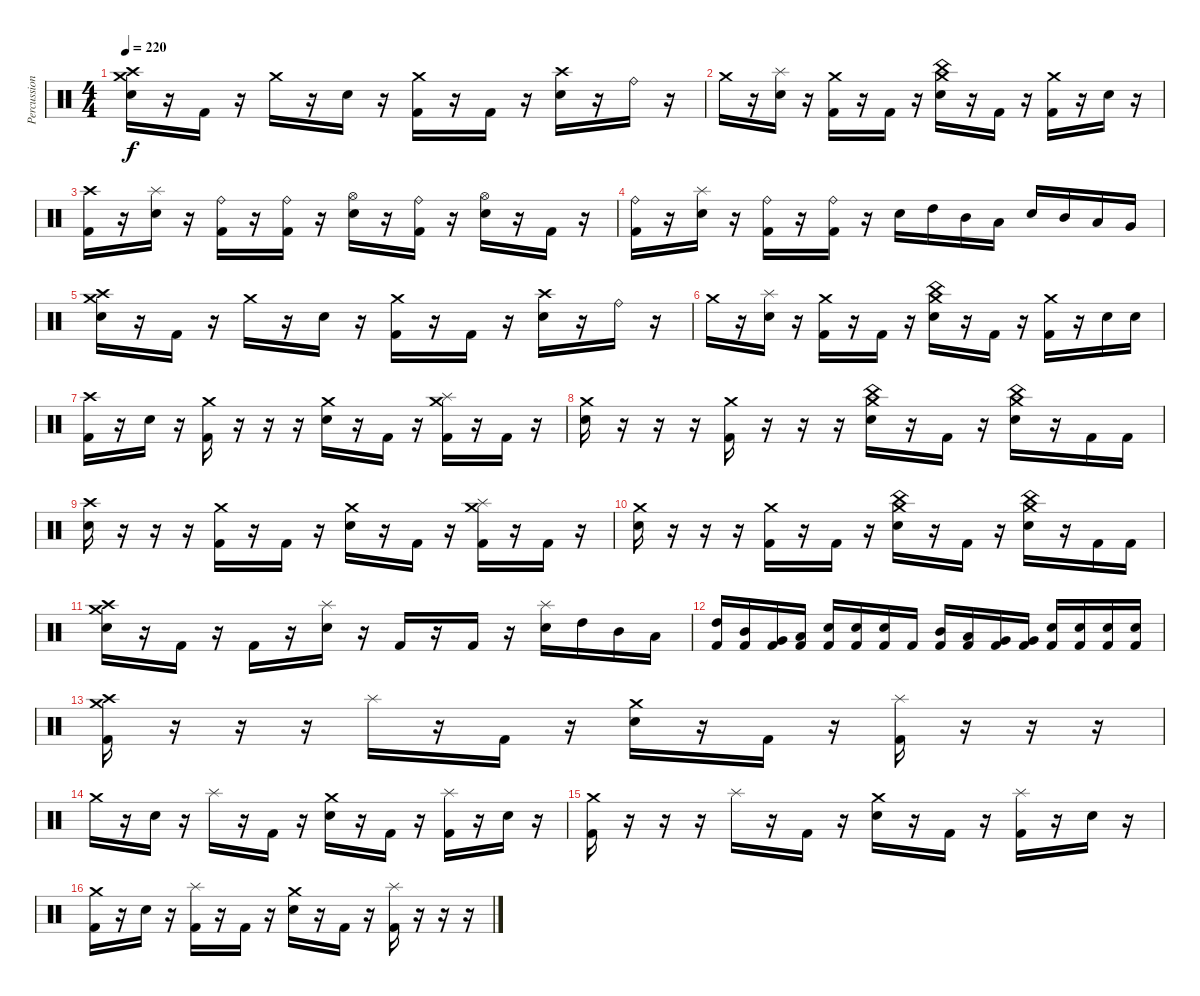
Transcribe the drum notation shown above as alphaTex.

\track ("Percussion" "Percussion") {instrument percussion}
\staff {score}
\articulation defaults
\ts (4 4)
\tempo 220
\clef neutral
\ks c
("Crash high (hit)" "Crash medium (hit)" "Electric Snare (hit)").16{dy f} r.16 "Kick (hit) 2".16 r.16 "Crash medium (hit)".16 r.16 "Electric Snare (hit)".16 r.16 ("Crash medium (hit)" "Kick (hit) 2").16 r.16 "Kick (hit) 2".16 r.16 ("Crash high (hit)" "Electric Snare (hit)").16 r.16 "Ride (bell)".16 r.16 |
"Crash medium (hit)".16 r.16 ("Splash (hit)" "Electric Snare (hit)").16 r.16 ("Crash medium (hit)" "Kick (hit) 2").16 r.16 "Kick (hit) 2".16 r.16 ("Crash medium (hit)" "China (hit)" "Electric Snare (hit)").16 r.16 "Kick (hit) 2".16 r.16 ("Crash medium (hit)" "Kick (hit) 2").16 r.16 "Electric Snare (hit)".16 r.16 |
("Crash high (hit)" "Kick (hit) 2").16 r.16 ("Splash (hit)" "Electric Snare (hit)").16 r.16 ("Ride (bell)" "Kick (hit) 2").16 r.16 ("Ride (bell)" "Kick (hit) 2").16 r.16 ("Hi-Hat (open)" "Electric Snare (hit)").16 r.16 ("Ride (bell)" "Kick (hit) 2").16 r.16 ("Hi-Hat (open)" "Electric Snare (hit)").16 r.16 "Kick (hit) 2".16 r.16 |
("Ride (bell)" "Kick (hit) 2").16 r.16 ("Splash (hit)" "Electric Snare (hit)").16 r.16 ("Ride (bell)" "Kick (hit) 2").16 r.16 ("Ride (bell)" "Kick (hit) 2").16 r.16 "Electric Snare (hit)".16 "High Tom (hit)".16 "Mid Tom (hit)".16 "Low Tom (hit)".16 "Electric Snare (hit)".16 "Mid Tom (hit)".16 "Low Tom (hit)".16 "Very Low Tom (hit)".16 |
("Crash high (hit)" "Crash medium (hit)" "Electric Snare (hit)").16 r.16 "Kick (hit) 2".16 r.16 "Crash medium (hit)".16 r.16 "Electric Snare (hit)".16 r.16 ("Crash medium (hit)" "Kick (hit) 2").16 r.16 "Kick (hit) 2".16 r.16 ("Crash high (hit)" "Electric Snare (hit)").16 r.16 "Ride (bell)".16 r.16 |
"Crash medium (hit)".16 r.16 ("Splash (hit)" "Electric Snare (hit)").16 r.16 ("Crash medium (hit)" "Kick (hit) 2").16 r.16 "Kick (hit) 2".16 r.16 ("Crash medium (hit)" "China (hit)" "Electric Snare (hit)").16 r.16 "Kick (hit) 2".16 r.16 ("Crash medium (hit)" "Kick (hit) 2").16 r.16 "Electric Snare (hit)".16 "Electric Snare (hit)".16 |
("Crash high (hit)" "Kick (hit) 2").16 r.16 "Electric Snare (hit)".16 r.16 ("Crash medium (hit)" "Kick (hit) 2").16 r.16 r.16 r.16 ("Crash medium (hit)" "Electric Snare (hit)").16 r.16 "Kick (hit) 2".16 r.16 ("Crash medium (hit)" "Splash (hit)" "Kick (hit) 2").16 r.16 "Kick (hit) 2".16 r.16 |
("Crash medium (hit)" "Electric Snare (hit)").16 r.16 r.16 r.16 ("Crash medium (hit)" "Kick (hit) 2").16 r.16 r.16 r.16 ("Crash medium (hit)" "China (hit)" "Electric Snare (hit)").16 r.16 "Kick (hit) 2".16 r.16 ("Crash medium (hit)" "China (hit)" "Electric Snare (hit)").16 r.16 "Kick (hit) 2".16 "Kick (hit) 2".16 |
("Crash high (hit)" "Electric Snare (hit)").16 r.16 r.16 r.16 ("Crash medium (hit)" "Kick (hit) 2").16 r.16 "Kick (hit) 2".16 r.16 ("Crash medium (hit)" "Electric Snare (hit)").16 r.16 "Kick (hit) 2".16 r.16 ("Crash medium (hit)" "Splash (hit)" "Kick (hit) 2").16 r.16 "Kick (hit) 2".16 r.16 |
("Crash medium (hit)" "Electric Snare (hit)").16 r.16 r.16 r.16 ("Crash medium (hit)" "Kick (hit) 2").16 r.16 "Kick (hit) 2".16 r.16 ("Crash medium (hit)" "China (hit)" "Electric Snare (hit)").16 r.16 "Kick (hit) 2".16 r.16 ("Crash medium (hit)" "China (hit)" "Electric Snare (hit)").16 r.16 "Kick (hit) 2".16 "Kick (hit) 2".16 |
("Crash medium (hit)" "Crash high (hit)" "Electric Snare (hit)").16 r.16 "Kick (hit) 2".16 r.16 "Kick (hit) 2".16 r.16 ("Splash (hit)" "Electric Snare (hit)").16 r.16 "Kick (hit) 2".16 r.16 "Kick (hit) 2".16 r.16 ("Splash (hit)" "Electric Snare (hit)").16 "High Tom (hit)".16 "Mid Tom (hit)".16 "Low Tom (hit)".16 |
("High Tom (hit)" "Kick (hit) 2").16 ("Mid Tom (hit)" "Kick (hit) 2").16 ("Very Low Tom (hit)" "Kick (hit) 2").16 ("Low Floor Tom (hit)" "Kick (hit) 2").16 ("Electric Snare (hit)" "Kick (hit) 2").16 ("Electric Snare (hit)" "Kick (hit) 2").16 ("Electric Snare (hit)" "Kick (hit) 2").16 "Kick (hit) 2".16 ("Mid Tom (hit)" "Kick (hit) 2").16 ("Low Tom (hit)" "Kick (hit) 2").16 ("Very Low Tom (hit)" "Kick (hit) 2").16 ("Very Low Tom (hit)" "Kick (hit) 2").16 ("Electric Snare (hit)" "Kick (hit) 2").16 ("Electric Snare (hit)" "Kick (hit) 2").16 ("Electric Snare (hit)" "Kick (hit) 2").16 ("Electric Snare (hit)" "Kick (hit) 2").16 |
("Crash high (hit)" "Crash medium (hit)" "Kick (hit) 2").16 r.16 r.16 r.16 "Splash (hit)".16 r.16 "Kick (hit) 2".16 r.16 ("Crash medium (hit)" "Electric Snare (hit)").16 r.16 "Kick (hit) 2".16 r.16 ("Splash (hit)" "Kick (hit) 2").16 r.16 r.16 r.16 |
"Crash medium (hit)".16 r.16 "Electric Snare (hit)".16 r.16 "Splash (hit)".16 r.16 "Kick (hit) 2".16 r.16 ("Crash medium (hit)" "Electric Snare (hit)").16 r.16 "Kick (hit) 2".16 r.16 ("Splash (hit)" "Kick (hit) 2").16 r.16 "Electric Snare (hit)".16 r.16 |
("Crash medium (hit)" "Kick (hit) 2").16 r.16 r.16 r.16 "Splash (hit)".16 r.16 "Kick (hit) 2".16 r.16 ("Crash medium (hit)" "Electric Snare (hit)").16 r.16 "Kick (hit) 2".16 r.16 ("Splash (hit)" "Kick (hit) 2").16 r.16 "Electric Snare (hit)".16 r.16 |
("Crash medium (hit)" "Kick (hit) 2").16 r.16 "Electric Snare (hit)".16 r.16 ("Splash (hit)" "Kick (hit) 2").16 r.16 "Kick (hit) 2".16 r.16 ("Crash medium (hit)" "Electric Snare (hit)").16 r.16 "Kick (hit) 2".16 r.16 ("Splash (hit)" "Kick (hit) 2").16 r.16 r.16 r.16
